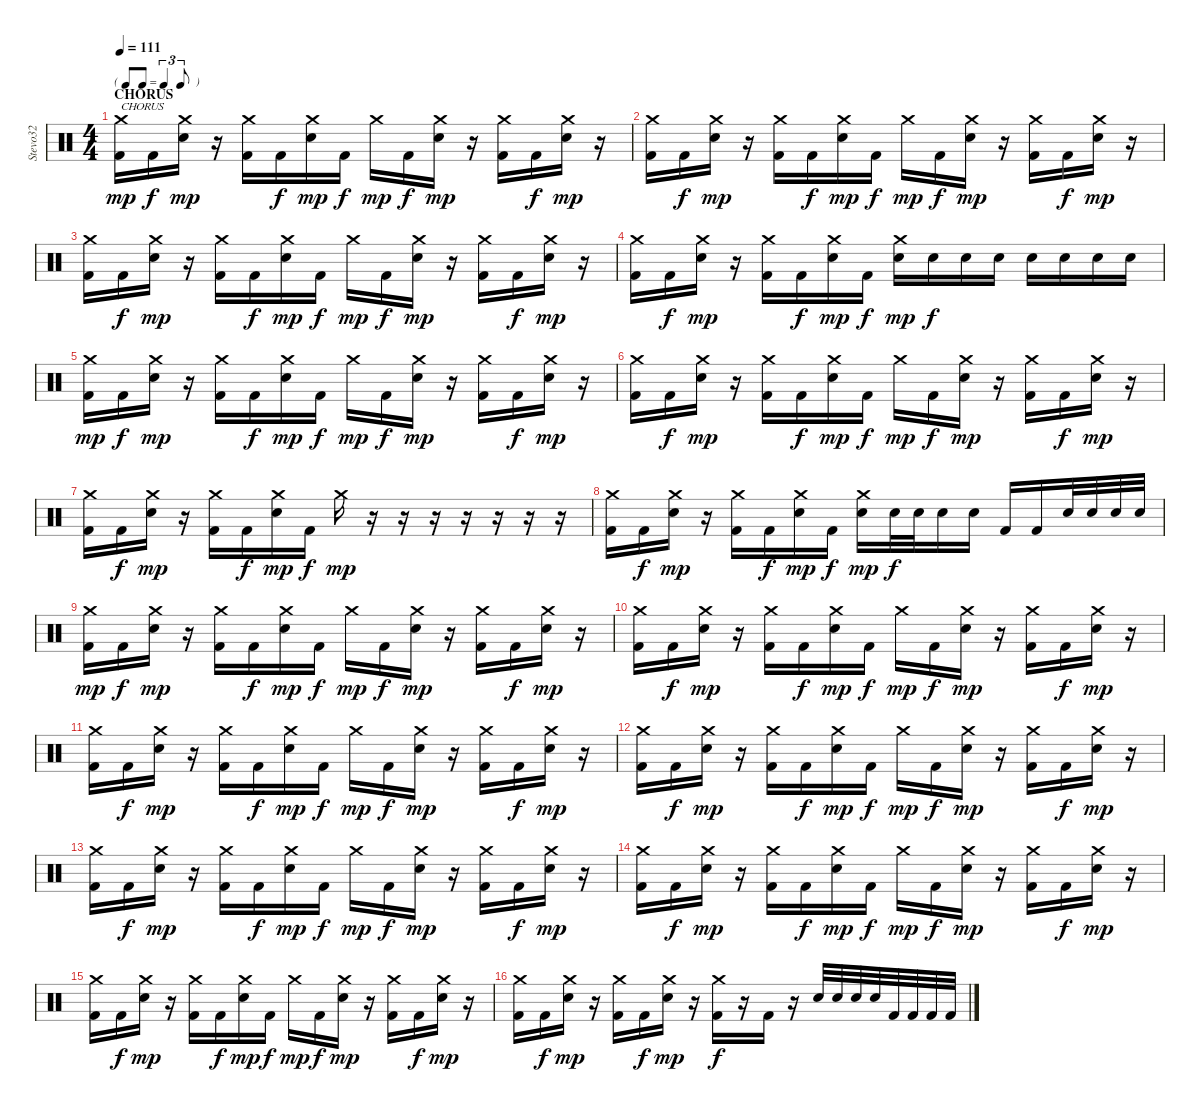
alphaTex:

\track ("Stevo32" "Stevo32") {instrument percussion}
\staff {score}
\articulation defaults
\ts (4 4)
\tf triplet8th
\section ("" "CHORUS")
\tempo 111
\clef neutral
\ks c
("Crash medium (hit)" "Kick (hit) 2").16{txt "CHORUS" dy mp} "Kick (hit) 2".16{dy f} ("Crash medium (hit)" "Electric Snare (hit)").16{dy mp} r.16 ("Crash medium (hit)" "Kick (hit) 2").16 "Kick (hit) 2".16{dy f} ("Crash medium (hit)" "Electric Snare (hit)").16{dy mp} "Kick (hit) 2".16{dy f} "Crash medium (hit)".16{dy mp} "Kick (hit) 2".16{dy f} ("Crash medium (hit)" "Electric Snare (hit)").16{dy mp} r.16 ("Crash medium (hit)" "Kick (hit) 2").16 "Kick (hit) 2".16{dy f} ("Crash medium (hit)" "Electric Snare (hit)").16{dy mp} r.16 |
("Crash medium (hit)" "Kick (hit) 2").16 "Kick (hit) 2".16{dy f} ("Crash medium (hit)" "Electric Snare (hit)").16{dy mp} r.16 ("Crash medium (hit)" "Kick (hit) 2").16 "Kick (hit) 2".16{dy f} ("Crash medium (hit)" "Electric Snare (hit)").16{dy mp} "Kick (hit) 2".16{dy f} "Crash medium (hit)".16{dy mp} "Kick (hit) 2".16{dy f} ("Crash medium (hit)" "Electric Snare (hit)").16{dy mp} r.16 ("Crash medium (hit)" "Kick (hit) 2").16 "Kick (hit) 2".16{dy f} ("Crash medium (hit)" "Electric Snare (hit)").16{dy mp} r.16 |
("Crash medium (hit)" "Kick (hit) 2").16 "Kick (hit) 2".16{dy f} ("Crash medium (hit)" "Electric Snare (hit)").16{dy mp} r.16 ("Crash medium (hit)" "Kick (hit) 2").16 "Kick (hit) 2".16{dy f} ("Crash medium (hit)" "Electric Snare (hit)").16{dy mp} "Kick (hit) 2".16{dy f} "Crash medium (hit)".16{dy mp} "Kick (hit) 2".16{dy f} ("Crash medium (hit)" "Electric Snare (hit)").16{dy mp} r.16 ("Crash medium (hit)" "Kick (hit) 2").16 "Kick (hit) 2".16{dy f} ("Crash medium (hit)" "Electric Snare (hit)").16{dy mp} r.16 |
("Crash medium (hit)" "Kick (hit) 2").16 "Kick (hit) 2".16{dy f} ("Crash medium (hit)" "Electric Snare (hit)").16{dy mp} r.16 ("Crash medium (hit)" "Kick (hit) 2").16 "Kick (hit) 2".16{dy f} ("Crash medium (hit)" "Electric Snare (hit)").16{dy mp} "Kick (hit) 2".16{dy f} ("Crash medium (hit)" "Electric Snare (hit)").16{dy mp} "Electric Snare (hit)".16{dy f} "Electric Snare (hit)".16 "Electric Snare (hit)".16 "Electric Snare (hit)".16 "Electric Snare (hit)".16 "Electric Snare (hit)".16 "Electric Snare (hit)".16 |
("Crash medium (hit)" "Kick (hit) 2").16{dy mp} "Kick (hit) 2".16{dy f} ("Crash medium (hit)" "Electric Snare (hit)").16{dy mp} r.16 ("Crash medium (hit)" "Kick (hit) 2").16 "Kick (hit) 2".16{dy f} ("Crash medium (hit)" "Electric Snare (hit)").16{dy mp} "Kick (hit) 2".16{dy f} "Crash medium (hit)".16{dy mp} "Kick (hit) 2".16{dy f} ("Crash medium (hit)" "Electric Snare (hit)").16{dy mp} r.16 ("Crash medium (hit)" "Kick (hit) 2").16 "Kick (hit) 2".16{dy f} ("Crash medium (hit)" "Electric Snare (hit)").16{dy mp} r.16 |
("Crash medium (hit)" "Kick (hit) 2").16 "Kick (hit) 2".16{dy f} ("Crash medium (hit)" "Electric Snare (hit)").16{dy mp} r.16 ("Crash medium (hit)" "Kick (hit) 2").16 "Kick (hit) 2".16{dy f} ("Crash medium (hit)" "Electric Snare (hit)").16{dy mp} "Kick (hit) 2".16{dy f} "Crash medium (hit)".16{dy mp} "Kick (hit) 2".16{dy f} ("Crash medium (hit)" "Electric Snare (hit)").16{dy mp} r.16 ("Crash medium (hit)" "Kick (hit) 2").16 "Kick (hit) 2".16{dy f} ("Crash medium (hit)" "Electric Snare (hit)").16{dy mp} r.16 |
("Crash medium (hit)" "Kick (hit) 2").16 "Kick (hit) 2".16{dy f} ("Crash medium (hit)" "Electric Snare (hit)").16{dy mp} r.16 ("Crash medium (hit)" "Kick (hit) 2").16 "Kick (hit) 2".16{dy f} ("Crash medium (hit)" "Electric Snare (hit)").16{dy mp} "Kick (hit) 2".16{dy f} "Crash medium (hit)".16{dy mp} r.16 r.16 r.16 r.16 r.16 r.16 r.16 |
("Crash medium (hit)" "Kick (hit) 2").16 "Kick (hit) 2".16{dy f} ("Crash medium (hit)" "Electric Snare (hit)").16{dy mp} r.16 ("Crash medium (hit)" "Kick (hit) 2").16 "Kick (hit) 2".16{dy f} ("Crash medium (hit)" "Electric Snare (hit)").16{dy mp} "Kick (hit) 2".16{dy f} ("Crash medium (hit)" "Electric Snare (hit)").16{dy mp} "Electric Snare (hit)".32{dy f} "Electric Snare (hit)".32 "Electric Snare (hit)".16 "Electric Snare (hit)".16 "Kick (hit) 2".16 "Kick (hit) 2".16 "Electric Snare (hit)".32 "Electric Snare (hit)".32 "Electric Snare (hit)".32 "Electric Snare (hit)".32 |
("Crash medium (hit)" "Kick (hit) 2").16{dy mp} "Kick (hit) 2".16{dy f} ("Crash medium (hit)" "Electric Snare (hit)").16{dy mp} r.16 ("Crash medium (hit)" "Kick (hit) 2").16 "Kick (hit) 2".16{dy f} ("Crash medium (hit)" "Electric Snare (hit)").16{dy mp} "Kick (hit) 2".16{dy f} "Crash medium (hit)".16{dy mp} "Kick (hit) 2".16{dy f} ("Crash medium (hit)" "Electric Snare (hit)").16{dy mp} r.16 ("Crash medium (hit)" "Kick (hit) 2").16 "Kick (hit) 2".16{dy f} ("Crash medium (hit)" "Electric Snare (hit)").16{dy mp} r.16 |
("Crash medium (hit)" "Kick (hit) 2").16 "Kick (hit) 2".16{dy f} ("Crash medium (hit)" "Electric Snare (hit)").16{dy mp} r.16 ("Crash medium (hit)" "Kick (hit) 2").16 "Kick (hit) 2".16{dy f} ("Crash medium (hit)" "Electric Snare (hit)").16{dy mp} "Kick (hit) 2".16{dy f} "Crash medium (hit)".16{dy mp} "Kick (hit) 2".16{dy f} ("Crash medium (hit)" "Electric Snare (hit)").16{dy mp} r.16 ("Crash medium (hit)" "Kick (hit) 2").16 "Kick (hit) 2".16{dy f} ("Crash medium (hit)" "Electric Snare (hit)").16{dy mp} r.16 |
("Crash medium (hit)" "Kick (hit) 2").16 "Kick (hit) 2".16{dy f} ("Crash medium (hit)" "Electric Snare (hit)").16{dy mp} r.16 ("Crash medium (hit)" "Kick (hit) 2").16 "Kick (hit) 2".16{dy f} ("Crash medium (hit)" "Electric Snare (hit)").16{dy mp} "Kick (hit) 2".16{dy f} "Crash medium (hit)".16{dy mp} "Kick (hit) 2".16{dy f} ("Crash medium (hit)" "Electric Snare (hit)").16{dy mp} r.16 ("Crash medium (hit)" "Kick (hit) 2").16 "Kick (hit) 2".16{dy f} ("Crash medium (hit)" "Electric Snare (hit)").16{dy mp} r.16 |
("Crash medium (hit)" "Kick (hit) 2").16 "Kick (hit) 2".16{dy f} ("Crash medium (hit)" "Electric Snare (hit)").16{dy mp} r.16 ("Crash medium (hit)" "Kick (hit) 2").16 "Kick (hit) 2".16{dy f} ("Crash medium (hit)" "Electric Snare (hit)").16{dy mp} "Kick (hit) 2".16{dy f} "Crash medium (hit)".16{dy mp} "Kick (hit) 2".16{dy f} ("Crash medium (hit)" "Electric Snare (hit)").16{dy mp} r.16 ("Crash medium (hit)" "Kick (hit) 2").16 "Kick (hit) 2".16{dy f} ("Crash medium (hit)" "Electric Snare (hit)").16{dy mp} r.16 |
("Crash medium (hit)" "Kick (hit) 2").16 "Kick (hit) 2".16{dy f} ("Crash medium (hit)" "Electric Snare (hit)").16{dy mp} r.16 ("Crash medium (hit)" "Kick (hit) 2").16 "Kick (hit) 2".16{dy f} ("Crash medium (hit)" "Electric Snare (hit)").16{dy mp} "Kick (hit) 2".16{dy f} "Crash medium (hit)".16{dy mp} "Kick (hit) 2".16{dy f} ("Crash medium (hit)" "Electric Snare (hit)").16{dy mp} r.16 ("Crash medium (hit)" "Kick (hit) 2").16 "Kick (hit) 2".16{dy f} ("Crash medium (hit)" "Electric Snare (hit)").16{dy mp} r.16 |
("Crash medium (hit)" "Kick (hit) 2").16 "Kick (hit) 2".16{dy f} ("Crash medium (hit)" "Electric Snare (hit)").16{dy mp} r.16 ("Crash medium (hit)" "Kick (hit) 2").16 "Kick (hit) 2".16{dy f} ("Crash medium (hit)" "Electric Snare (hit)").16{dy mp} "Kick (hit) 2".16{dy f} "Crash medium (hit)".16{dy mp} "Kick (hit) 2".16{dy f} ("Crash medium (hit)" "Electric Snare (hit)").16{dy mp} r.16 ("Crash medium (hit)" "Kick (hit) 2").16 "Kick (hit) 2".16{dy f} ("Crash medium (hit)" "Electric Snare (hit)").16{dy mp} r.16 |
("Crash medium (hit)" "Kick (hit) 2").16 "Kick (hit) 2".16{dy f} ("Crash medium (hit)" "Electric Snare (hit)").16{dy mp} r.16 ("Crash medium (hit)" "Kick (hit) 2").16 "Kick (hit) 2".16{dy f} ("Crash medium (hit)" "Electric Snare (hit)").16{dy mp} "Kick (hit) 2".16{dy f} "Crash medium (hit)".16{dy mp} "Kick (hit) 2".16{dy f} ("Crash medium (hit)" "Electric Snare (hit)").16{dy mp} r.16 ("Crash medium (hit)" "Kick (hit) 2").16 "Kick (hit) 2".16{dy f} ("Crash medium (hit)" "Electric Snare (hit)").16{dy mp} r.16 |
("Crash medium (hit)" "Kick (hit) 2").16 "Kick (hit) 2".16{dy f} ("Crash medium (hit)" "Electric Snare (hit)").16{dy mp} r.16 ("Crash medium (hit)" "Kick (hit) 2").16 "Kick (hit) 2".16{dy f} ("Crash medium (hit)" "Electric Snare (hit)").16{dy mp} r.16 ("Crash medium (hit)" "Kick (hit) 2").16{dy f} r.16 "Kick (hit) 2".16 r.16 "Electric Snare (hit)".32 "Electric Snare (hit)".32 "Electric Snare (hit)".32 "Electric Snare (hit)".32 "Kick (hit) 2".32 "Kick (hit) 2".32 "Kick (hit) 2".32 "Kick (hit) 2".32
